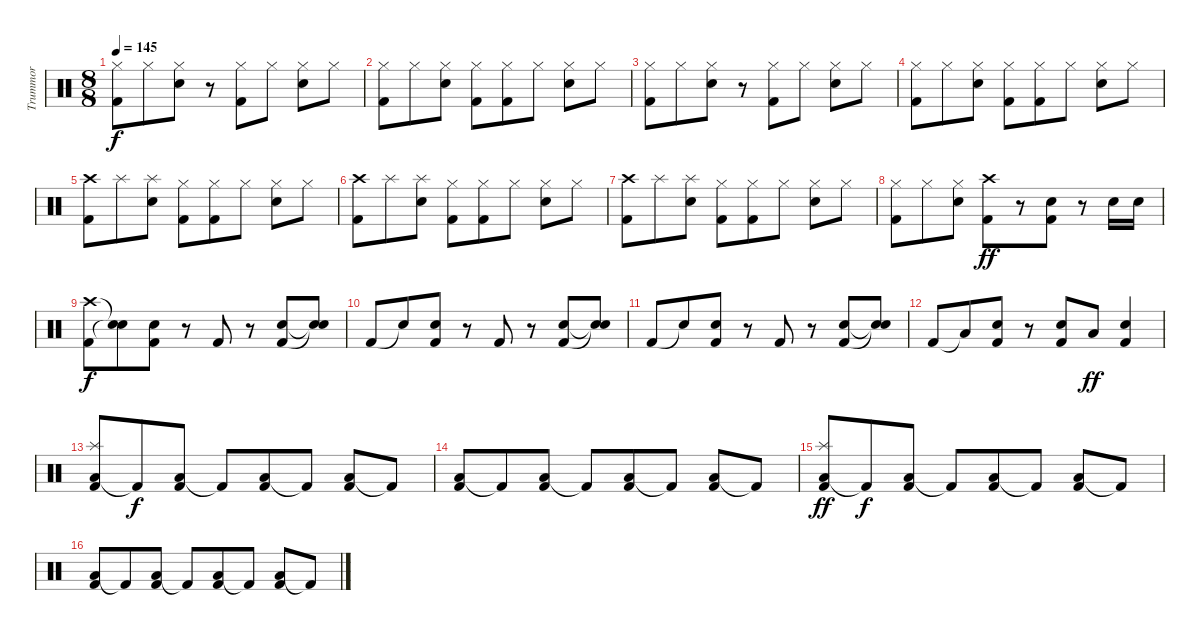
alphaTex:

\track ("Trummor" "Trummor") {instrument percussion}
\staff {score}
\articulation defaults
\ts (8 8)
\tempo 145
\clef neutral
\ks c
("Kick (hit) 2" "Hi-Hat (closed)").8{dy f} "Hi-Hat (closed)".8 ("Snare (hit) 2" "Hi-Hat (closed)").8 r.8 ("Kick (hit) 2" "Hi-Hat (closed)").8 "Hi-Hat (closed)".8 ("Snare (hit) 2" "Hi-Hat (closed)").8 "Hi-Hat (closed)".8 |
("Kick (hit) 2" "Hi-Hat (closed)").8 "Hi-Hat (closed)".8 ("Snare (hit) 2" "Hi-Hat (closed)").8 ("Kick (hit) 2" "Hi-Hat (closed)").8 ("Kick (hit) 2" "Hi-Hat (closed)").8 "Hi-Hat (closed)".8 ("Snare (hit) 2" "Hi-Hat (closed)").8 "Hi-Hat (closed)".8 |
("Kick (hit) 2" "Hi-Hat (closed)").8 "Hi-Hat (closed)".8 ("Snare (hit) 2" "Hi-Hat (closed)").8 r.8 ("Kick (hit) 2" "Hi-Hat (closed)").8 "Hi-Hat (closed)".8 ("Snare (hit) 2" "Hi-Hat (closed)").8 "Hi-Hat (closed)".8 |
("Kick (hit) 2" "Hi-Hat (closed)").8 "Hi-Hat (closed)".8 ("Snare (hit) 2" "Hi-Hat (closed)").8 ("Kick (hit) 2" "Hi-Hat (closed)").8 ("Kick (hit) 2" "Hi-Hat (closed)").8 "Hi-Hat (closed)".8 ("Snare (hit) 2" "Hi-Hat (closed)").8 "Hi-Hat (closed)".8 |
("Kick (hit) 2" "Crash high (hit)").8 "Splash (hit)".8 ("Snare (hit) 2" "Splash (hit)").8 ("Kick (hit) 2" "Hi-Hat (closed)").8 ("Kick (hit) 2" "Hi-Hat (closed)").8 "Hi-Hat (closed)".8 ("Snare (hit) 2" "Hi-Hat (closed)").8 "Hi-Hat (closed)".8 |
("Kick (hit) 2" "Crash high (hit)").8 "Splash (hit)".8 ("Snare (hit) 2" "Splash (hit)").8 ("Kick (hit) 2" "Hi-Hat (closed)").8 ("Kick (hit) 2" "Hi-Hat (closed)").8 "Hi-Hat (closed)".8 ("Snare (hit) 2" "Hi-Hat (closed)").8 "Hi-Hat (closed)".8 |
("Kick (hit) 2" "Crash high (hit)").8 "Splash (hit)".8 ("Snare (hit) 2" "Splash (hit)").8 ("Kick (hit) 2" "Hi-Hat (closed)").8 ("Kick (hit) 2" "Hi-Hat (closed)").8 "Hi-Hat (closed)".8 ("Snare (hit) 2" "Hi-Hat (closed)").8 "Hi-Hat (closed)".8 |
("Kick (hit) 2" "Hi-Hat (closed)").8 "Hi-Hat (closed)".8 ("Snare (hit) 2" "Hi-Hat (closed)").8 ("Kick (hit) 2" "Crash high (hit)").8{dy ff} r.8 ("Kick (hit) 2" "Snare (hit) 2").8 r.8 "Snare (hit) 2".16 "Snare (hit) 2".16 |
("Crash high (hit)" "Kick (hit) 2").8{dy f} ("Snare (hit)"{t} "Snare (hit)"{t}).8 ("Snare (hit) 2" "Kick (hit) 2").8 r.8 "Kick (hit) 2".8 r.8 ("Snare (hit) 2" "Kick (hit) 2").8 ("Snare (hit)"{t} "Snare (hit)"{t}).8 |
"Kick (hit) 2".8 "Snare (hit)"{t}.8 ("Snare (hit) 2" "Kick (hit) 2").8 r.8 "Kick (hit) 2".8 r.8 ("Snare (hit) 2" "Kick (hit) 2").8 ("Snare (hit)"{t} "Snare (hit)"{t}).8 |
"Kick (hit) 2".8 "Snare (hit)"{t}.8 ("Snare (hit) 2" "Kick (hit) 2").8 r.8 "Kick (hit) 2".8 r.8 ("Snare (hit) 2" "Kick (hit) 2").8 ("Snare (hit)"{t} "Snare (hit)"{t}).8 |
"Kick (hit) 2".8 "Low Floor Tom (hit)"{t}.8 ("Snare (hit) 2" "Kick (hit) 2").8 r.8 ("Snare (hit) 2" "Kick (hit) 2").8 "Low Floor Tom (hit)".8{dy ff} ("Snare (hit) 2" "Kick (hit) 2").4 |
("Low Floor Tom (hit)" "Splash (hit)" "Kick (hit) 2").8 "Kick (hit) 2"{t}.8{dy f} ("Low Floor Tom (hit)" "Kick (hit) 2").8 "Kick (hit) 2"{t}.8 ("Low Floor Tom (hit)" "Kick (hit) 2").8 "Kick (hit) 2"{t}.8 ("Low Floor Tom (hit)" "Kick (hit) 2").8 "Kick (hit) 2"{t}.8 |
("Low Floor Tom (hit)" "Kick (hit) 2").8 "Kick (hit) 2"{t}.8 ("Low Floor Tom (hit)" "Kick (hit) 2").8 "Kick (hit) 2"{t}.8 ("Low Floor Tom (hit)" "Kick (hit) 2").8 "Kick (hit) 2"{t}.8 ("Low Floor Tom (hit)" "Kick (hit) 2").8 "Kick (hit) 2"{t}.8 |
("Low Floor Tom (hit)" "Splash (hit)" "Kick (hit) 2").8{dy ff} "Kick (hit) 2"{t}.8{dy f} ("Low Floor Tom (hit)" "Kick (hit) 2").8 "Kick (hit) 2"{t}.8 ("Low Floor Tom (hit)" "Kick (hit) 2").8 "Kick (hit) 2"{t}.8 ("Low Floor Tom (hit)" "Kick (hit) 2").8 "Kick (hit) 2"{t}.8 |
("Low Floor Tom (hit)" "Kick (hit) 2").8 "Kick (hit) 2"{t}.8 ("Low Floor Tom (hit)" "Kick (hit) 2").8 "Kick (hit) 2"{t}.8 ("Low Floor Tom (hit)" "Kick (hit) 2").8 "Kick (hit) 2"{t}.8 ("Low Floor Tom (hit)" "Kick (hit) 2").8 "Kick (hit) 2"{t}.8
